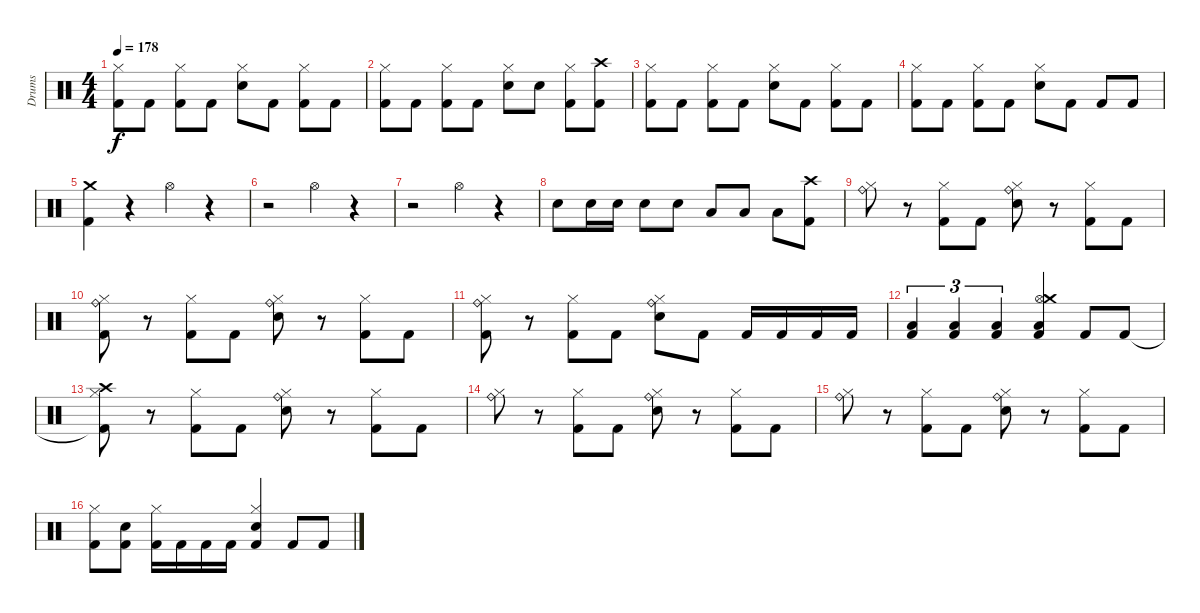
\track ("Drums" "Drums") {instrument percussion}
\staff {score}
\articulation defaults
\ts (4 4)
\tempo 178
\clef neutral
\ks c
("Kick (hit) 2" "Hi-Hat (closed)").8{dy f} "Kick (hit) 2".8 ("Kick (hit) 2" "Hi-Hat (closed)").8 "Kick (hit) 2".8 ("Snare (hit) 2" "Hi-Hat (closed)").8 "Kick (hit) 2".8 ("Kick (hit) 2" "Hi-Hat (closed)").8 "Kick (hit) 2".8 |
("Kick (hit) 2" "Hi-Hat (closed)").8 "Kick (hit) 2".8 ("Kick (hit) 2" "Hi-Hat (closed)").8 "Kick (hit) 2".8 ("Snare (hit) 2" "Hi-Hat (closed)").8 "Snare (hit) 2".8 ("Kick (hit) 2" "Hi-Hat (closed)").8 ("Kick (hit) 2" "Crash high (hit)").8 |
("Kick (hit) 2" "Hi-Hat (closed)").8 "Kick (hit) 2".8 ("Kick (hit) 2" "Hi-Hat (closed)").8 "Kick (hit) 2".8 ("Snare (hit) 2" "Hi-Hat (closed)").8 "Kick (hit) 2".8 ("Kick (hit) 2" "Hi-Hat (closed)").8 "Kick (hit) 2".8 |
("Kick (hit) 2" "Hi-Hat (closed)").8 "Kick (hit) 2".8 ("Kick (hit) 2" "Hi-Hat (closed)").8 "Kick (hit) 2".8 ("Snare (hit) 2" "Hi-Hat (closed)").8 "Kick (hit) 2".8 "Kick (hit) 2".8 "Kick (hit) 2".8 |
("Kick (hit) 2" "Crash medium (hit)").4 r.4 "Hi-Hat (open)".4 r.4 |
r.2 "Hi-Hat (open)".4 r.4 |
r.2 "Hi-Hat (open)".4 r.4 |
"Snare (hit) 2".8 "Snare (hit) 2".16 "Snare (hit) 2".16 "Snare (hit) 2".8 "Snare (hit) 2".8 "Low Floor Tom (hit)".8 "Low Floor Tom (hit)".8 "Low Floor Tom (hit)".8 ("Kick (hit) 2" "Crash high (hit)").8 |
("Hi-Hat (closed)" "Ride (bell)").8 r.8 ("Kick (hit) 2" "Hi-Hat (closed)").8 "Kick (hit) 2".8 ("Snare (hit) 2" "Hi-Hat (closed)" "Ride (bell)").8 r.8 ("Kick (hit) 2" "Hi-Hat (closed)").8 "Kick (hit) 2".8 |
("Kick (hit) 2" "Hi-Hat (closed)" "Ride (bell)").8 r.8 ("Kick (hit) 2" "Hi-Hat (closed)").8 "Kick (hit) 2".8 ("Snare (hit) 2" "Hi-Hat (closed)" "Ride (bell)").8 r.8 ("Kick (hit) 2" "Hi-Hat (closed)").8 "Kick (hit) 2".8 |
("Kick (hit) 2" "Hi-Hat (closed)" "Ride (bell)").8 r.8 ("Kick (hit) 2" "Hi-Hat (closed)").8 "Kick (hit) 2".8 ("Snare (hit) 2" "Hi-Hat (closed)" "Ride (bell)").8 "Kick (hit) 2".8 "Kick (hit) 2".16 "Kick (hit) 2".16 "Kick (hit) 2".16 "Kick (hit) 2".16 |
("Kick (hit) 2" "Low Floor Tom (hit)").4{tu (3 2)} ("Kick (hit) 2" "Low Floor Tom (hit)").4{tu (3 2)} ("Kick (hit) 2" "Low Floor Tom (hit)").4{tu (3 2)} ("Kick (hit) 2" "Low Floor Tom (hit)" "Hi-Hat (open)" "Crash medium (hit)").4 "Kick (hit) 2".8 "Kick (hit) 2".8 |
("Kick (hit) 2"{t} "Hi-Hat (closed)" "Crash high (hit)").8 r.8 ("Kick (hit) 2" "Hi-Hat (closed)").8 "Kick (hit) 2".8 ("Snare (hit) 2" "Hi-Hat (closed)" "Ride (bell)").8 r.8 ("Kick (hit) 2" "Hi-Hat (closed)").8 "Kick (hit) 2".8 |
("Hi-Hat (closed)" "Ride (bell)").8 r.8 ("Kick (hit) 2" "Hi-Hat (closed)").8 "Kick (hit) 2".8 ("Snare (hit) 2" "Hi-Hat (closed)" "Ride (bell)").8 r.8 ("Kick (hit) 2" "Hi-Hat (closed)").8 "Kick (hit) 2".8 |
("Hi-Hat (closed)" "Ride (bell)").8 r.8 ("Kick (hit) 2" "Hi-Hat (closed)").8 "Kick (hit) 2".8 ("Snare (hit) 2" "Hi-Hat (closed)" "Ride (bell)").8 r.8 ("Kick (hit) 2" "Hi-Hat (closed)").8 "Kick (hit) 2".8 |
("Kick (hit) 2" "Hi-Hat (closed)").8 ("Kick (hit) 2" "Snare (hit) 2").8 ("Kick (hit) 2" "Hi-Hat (closed)").16 "Kick (hit) 2".16 "Kick (hit) 2".16 "Kick (hit) 2".16 ("Kick (hit) 2" "Snare (hit) 2" "Hi-Hat (closed)").4 "Kick (hit) 2".8 "Kick (hit) 2".8
